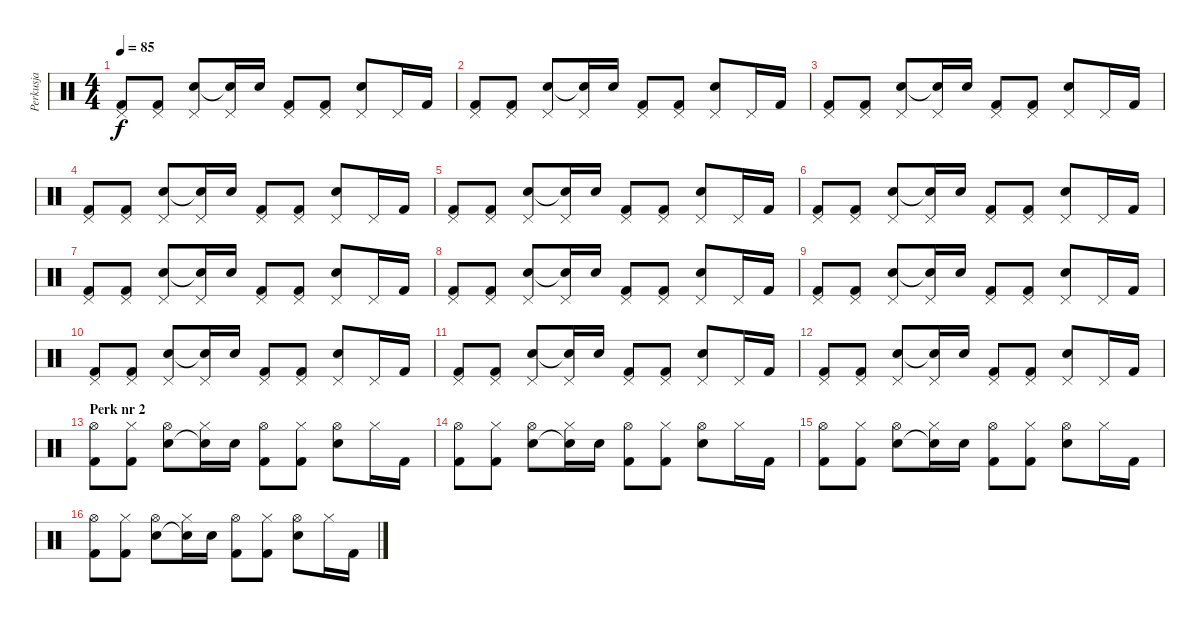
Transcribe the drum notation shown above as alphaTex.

\track ("Perkusja" "Perkusja") {instrument percussion}
\staff {score}
\articulation defaults
\ts (4 4)
\tempo 85
\clef neutral
\ks c
("Kick (hit) 2" "Pedal Hi-Hat (hit)").8{dy f} ("Kick (hit) 2" "Pedal Hi-Hat (hit)").8 ("Snare (hit) 2" "Pedal Hi-Hat (hit)").8 ("Snare (hit)"{t} "Pedal Hi-Hat (hit)").16 "Snare (hit) 2".16 ("Kick (hit) 2" "Pedal Hi-Hat (hit)").8 ("Kick (hit) 2" "Pedal Hi-Hat (hit)").8 ("Snare (hit) 2" "Pedal Hi-Hat (hit)").8 "Pedal Hi-Hat (hit)".16 "Kick (hit) 2".16 |
("Kick (hit) 2" "Pedal Hi-Hat (hit)").8 ("Kick (hit) 2" "Pedal Hi-Hat (hit)").8 ("Snare (hit) 2" "Pedal Hi-Hat (hit)").8 ("Snare (hit)"{t} "Pedal Hi-Hat (hit)").16 "Snare (hit) 2".16 ("Kick (hit) 2" "Pedal Hi-Hat (hit)").8 ("Kick (hit) 2" "Pedal Hi-Hat (hit)").8 ("Snare (hit) 2" "Pedal Hi-Hat (hit)").8 "Pedal Hi-Hat (hit)".16 "Kick (hit) 2".16 |
("Kick (hit) 2" "Pedal Hi-Hat (hit)").8 ("Kick (hit) 2" "Pedal Hi-Hat (hit)").8 ("Snare (hit) 2" "Pedal Hi-Hat (hit)").8 ("Snare (hit)"{t} "Pedal Hi-Hat (hit)").16 "Snare (hit) 2".16 ("Kick (hit) 2" "Pedal Hi-Hat (hit)").8 ("Kick (hit) 2" "Pedal Hi-Hat (hit)").8 ("Snare (hit) 2" "Pedal Hi-Hat (hit)").8 "Pedal Hi-Hat (hit)".16 "Kick (hit) 2".16 |
("Kick (hit) 2" "Pedal Hi-Hat (hit)").8 ("Kick (hit) 2" "Pedal Hi-Hat (hit)").8 ("Snare (hit) 2" "Pedal Hi-Hat (hit)").8 ("Snare (hit)"{t} "Pedal Hi-Hat (hit)").16 "Snare (hit) 2".16 ("Kick (hit) 2" "Pedal Hi-Hat (hit)").8 ("Kick (hit) 2" "Pedal Hi-Hat (hit)").8 ("Snare (hit) 2" "Pedal Hi-Hat (hit)").8 "Pedal Hi-Hat (hit)".16 "Kick (hit) 2".16 |
("Kick (hit) 2" "Pedal Hi-Hat (hit)").8 ("Kick (hit) 2" "Pedal Hi-Hat (hit)").8 ("Snare (hit) 2" "Pedal Hi-Hat (hit)").8 ("Snare (hit)"{t} "Pedal Hi-Hat (hit)").16 "Snare (hit) 2".16 ("Kick (hit) 2" "Pedal Hi-Hat (hit)").8 ("Kick (hit) 2" "Pedal Hi-Hat (hit)").8 ("Snare (hit) 2" "Pedal Hi-Hat (hit)").8 "Pedal Hi-Hat (hit)".16 "Kick (hit) 2".16 |
("Kick (hit) 2" "Pedal Hi-Hat (hit)").8 ("Kick (hit) 2" "Pedal Hi-Hat (hit)").8 ("Snare (hit) 2" "Pedal Hi-Hat (hit)").8 ("Snare (hit)"{t} "Pedal Hi-Hat (hit)").16 "Snare (hit) 2".16 ("Kick (hit) 2" "Pedal Hi-Hat (hit)").8 ("Kick (hit) 2" "Pedal Hi-Hat (hit)").8 ("Snare (hit) 2" "Pedal Hi-Hat (hit)").8 "Pedal Hi-Hat (hit)".16 "Kick (hit) 2".16 |
("Kick (hit) 2" "Pedal Hi-Hat (hit)").8 ("Kick (hit) 2" "Pedal Hi-Hat (hit)").8 ("Snare (hit) 2" "Pedal Hi-Hat (hit)").8 ("Snare (hit)"{t} "Pedal Hi-Hat (hit)").16 "Snare (hit) 2".16 ("Kick (hit) 2" "Pedal Hi-Hat (hit)").8 ("Kick (hit) 2" "Pedal Hi-Hat (hit)").8 ("Snare (hit) 2" "Pedal Hi-Hat (hit)").8 "Pedal Hi-Hat (hit)".16 "Kick (hit) 2".16 |
("Kick (hit) 2" "Pedal Hi-Hat (hit)").8 ("Kick (hit) 2" "Pedal Hi-Hat (hit)").8 ("Snare (hit) 2" "Pedal Hi-Hat (hit)").8 ("Snare (hit)"{t} "Pedal Hi-Hat (hit)").16 "Snare (hit) 2".16 ("Kick (hit) 2" "Pedal Hi-Hat (hit)").8 ("Kick (hit) 2" "Pedal Hi-Hat (hit)").8 ("Snare (hit) 2" "Pedal Hi-Hat (hit)").8 "Pedal Hi-Hat (hit)".16 "Kick (hit) 2".16 |
("Kick (hit) 2" "Pedal Hi-Hat (hit)").8 ("Kick (hit) 2" "Pedal Hi-Hat (hit)").8 ("Snare (hit) 2" "Pedal Hi-Hat (hit)").8 ("Snare (hit)"{t} "Pedal Hi-Hat (hit)").16 "Snare (hit) 2".16 ("Kick (hit) 2" "Pedal Hi-Hat (hit)").8 ("Kick (hit) 2" "Pedal Hi-Hat (hit)").8 ("Snare (hit) 2" "Pedal Hi-Hat (hit)").8 "Pedal Hi-Hat (hit)".16 "Kick (hit) 2".16 |
("Kick (hit) 2" "Pedal Hi-Hat (hit)").8 ("Kick (hit) 2" "Pedal Hi-Hat (hit)").8 ("Snare (hit) 2" "Pedal Hi-Hat (hit)").8 ("Snare (hit)"{t} "Pedal Hi-Hat (hit)").16 "Snare (hit) 2".16 ("Kick (hit) 2" "Pedal Hi-Hat (hit)").8 ("Kick (hit) 2" "Pedal Hi-Hat (hit)").8 ("Snare (hit) 2" "Pedal Hi-Hat (hit)").8 "Pedal Hi-Hat (hit)".16 "Kick (hit) 2".16 |
("Kick (hit) 2" "Pedal Hi-Hat (hit)").8 ("Kick (hit) 2" "Pedal Hi-Hat (hit)").8 ("Snare (hit) 2" "Pedal Hi-Hat (hit)").8 ("Snare (hit)"{t} "Pedal Hi-Hat (hit)").16 "Snare (hit) 2".16 ("Kick (hit) 2" "Pedal Hi-Hat (hit)").8 ("Kick (hit) 2" "Pedal Hi-Hat (hit)").8 ("Snare (hit) 2" "Pedal Hi-Hat (hit)").8 "Pedal Hi-Hat (hit)".16 "Kick (hit) 2".16 |
("Kick (hit) 2" "Pedal Hi-Hat (hit)").8 ("Kick (hit) 2" "Pedal Hi-Hat (hit)").8 ("Snare (hit) 2" "Pedal Hi-Hat (hit)").8 ("Snare (hit)"{t} "Pedal Hi-Hat (hit)").16 "Snare (hit) 2".16 ("Kick (hit) 2" "Pedal Hi-Hat (hit)").8 ("Kick (hit) 2" "Pedal Hi-Hat (hit)").8 ("Snare (hit) 2" "Pedal Hi-Hat (hit)").8 "Pedal Hi-Hat (hit)".16 "Kick (hit) 2".16 |
\section ("" "Perk nr 2")
("Kick (hit) 2" "Hi-Hat (open)").8 ("Kick (hit) 2" "Hi-Hat (closed)").8 ("Snare (hit) 2" "Hi-Hat (open)").8 ("Snare (hit)"{t} "Hi-Hat (closed)").16 "Snare (hit) 2".16 ("Kick (hit) 2" "Hi-Hat (open)").8 ("Kick (hit) 2" "Hi-Hat (closed)").8 ("Snare (hit) 2" "Hi-Hat (open)").8 "Hi-Hat (closed)".16 "Kick (hit) 2".16 |
("Kick (hit) 2" "Hi-Hat (open)").8 ("Kick (hit) 2" "Hi-Hat (closed)").8 ("Snare (hit) 2" "Hi-Hat (open)").8 ("Snare (hit)"{t} "Hi-Hat (closed)").16 "Snare (hit) 2".16 ("Kick (hit) 2" "Hi-Hat (open)").8 ("Kick (hit) 2" "Hi-Hat (closed)").8 ("Snare (hit) 2" "Hi-Hat (open)").8 "Hi-Hat (closed)".16 "Kick (hit) 2".16 |
("Kick (hit) 2" "Hi-Hat (open)").8 ("Kick (hit) 2" "Hi-Hat (closed)").8 ("Snare (hit) 2" "Hi-Hat (open)").8 ("Snare (hit)"{t} "Hi-Hat (closed)").16 "Snare (hit) 2".16 ("Kick (hit) 2" "Hi-Hat (open)").8 ("Kick (hit) 2" "Hi-Hat (closed)").8 ("Snare (hit) 2" "Hi-Hat (open)").8 "Hi-Hat (closed)".16 "Kick (hit) 2".16 |
("Kick (hit) 2" "Hi-Hat (open)").8 ("Kick (hit) 2" "Hi-Hat (closed)").8 ("Snare (hit) 2" "Hi-Hat (open)").8 ("Snare (hit)"{t} "Hi-Hat (closed)").16 "Snare (hit) 2".16 ("Kick (hit) 2" "Hi-Hat (open)").8 ("Kick (hit) 2" "Hi-Hat (closed)").8 ("Snare (hit) 2" "Hi-Hat (open)").8 "Hi-Hat (closed)".16 "Kick (hit) 2".16
